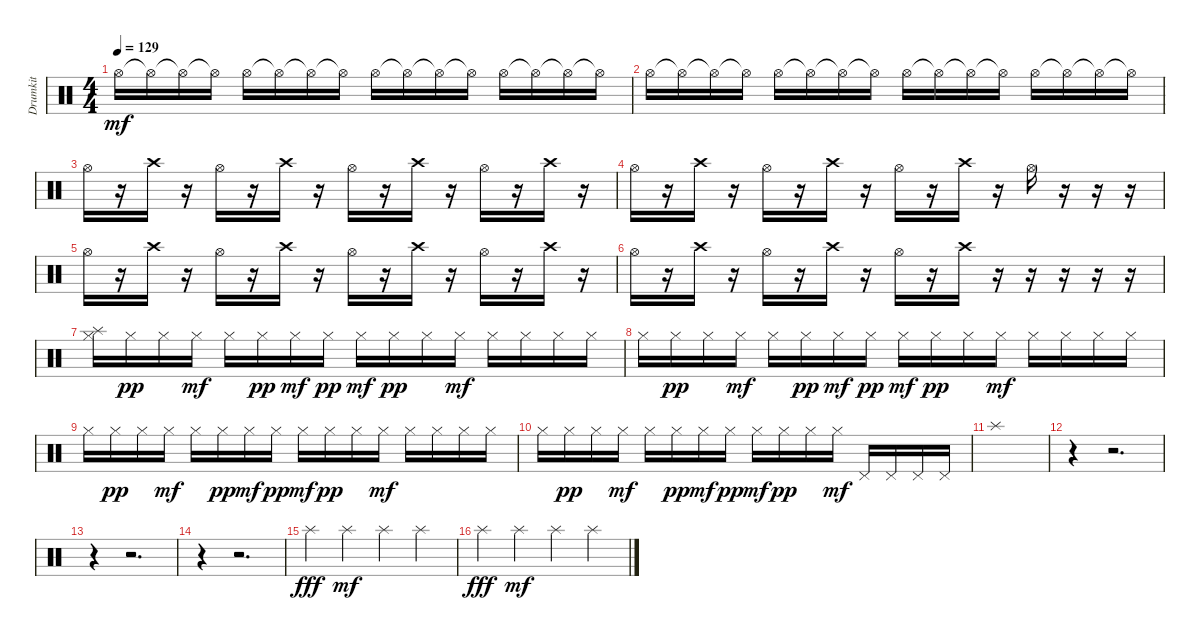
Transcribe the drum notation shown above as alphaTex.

\track ("Drumkit" "Drumkit") {instrument percussion}
\staff {score}
\articulation defaults
\ts (4 4)
\tempo 129
\clef neutral
\ks c "Hi-Hat (open)".16{dy mf} "Hi-Hat (open)"{t}.16 "Hi-Hat (open)"{t}.16 "Hi-Hat (open)"{t}.16 "Hi-Hat (open)".16 "Hi-Hat (open)"{t}.16 "Hi-Hat (open)"{t}.16 "Hi-Hat (open)"{t}.16 "Hi-Hat (open)".16 "Hi-Hat (open)"{t}.16 "Hi-Hat (open)"{t}.16 "Hi-Hat (open)"{t}.16 "Hi-Hat (open)".16 "Hi-Hat (open)"{t}.16 "Hi-Hat (open)"{t}.16 "Hi-Hat (open)"{t}.16
|
"Hi-Hat (open)".16 "Hi-Hat (open)"{t}.16 "Hi-Hat (open)"{t}.16 "Hi-Hat (open)"{t}.16 "Hi-Hat (open)".16 "Hi-Hat (open)"{t}.16 "Hi-Hat (open)"{t}.16 "Hi-Hat (open)"{t}.16 "Hi-Hat (open)".16 "Hi-Hat (open)"{t}.16 "Hi-Hat (open)"{t}.16 "Hi-Hat (open)"{t}.16 "Hi-Hat (open)".16 "Hi-Hat (open)"{t}.16 "Hi-Hat (open)"{t}.16 "Hi-Hat (open)"{t}.16 |
"Hi-Hat (open)".16 r.16 "Crash high (hit)".16 r.16 "Hi-Hat (open)".16 r.16 "Crash high (hit)".16 r.16 "Hi-Hat (open)".16 r.16 "Crash high (hit)".16 r.16 "Hi-Hat (open)".16 r.16 "Crash high (hit)".16 r.16 |
"Hi-Hat (open)".16 r.16 "Crash high (hit)".16 r.16 "Hi-Hat (open)".16 r.16 "Crash high (hit)".16 r.16 "Hi-Hat (open)".16 r.16 "Crash high (hit)".16 r.16 "Hi-Hat (open)".16 r.16 r.16 r.16 |
"Hi-Hat (open)".16 r.16 "Crash high (hit)".16 r.16 "Hi-Hat (open)".16 r.16 "Crash high (hit)".16 r.16 "Hi-Hat (open)".16 r.16 "Crash high (hit)".16 r.16 "Hi-Hat (open)".16 r.16 "Crash high (hit)".16 r.16 |
"Hi-Hat (open)".16 r.16 "Crash high (hit)".16 r.16 "Hi-Hat (open)".16 r.16 "Crash high (hit)".16 r.16 "Hi-Hat (open)".16 r.16 "Crash high (hit)".16 r.16 r.16 r.16 r.16 r.16 |
("Hi-Hat (closed)" "Splash (hit)").16 "Hi-Hat (closed)".16{dy pp} "Hi-Hat (closed)".16 "Hi-Hat (closed)".16{dy mf} "Hi-Hat (closed)".16 "Hi-Hat (closed)".16{dy pp} "Hi-Hat (closed)".16{dy mf} "Hi-Hat (closed)".16{dy pp} "Hi-Hat (closed)".16{dy mf} "Hi-Hat (closed)".16{dy pp} "Hi-Hat (closed)".16 "Hi-Hat (closed)".16{dy mf} "Hi-Hat (closed)".16 "Hi-Hat (closed)".16 "Hi-Hat (closed)".16 "Hi-Hat (closed)".16 |
"Hi-Hat (closed)".16 "Hi-Hat (closed)".16{dy pp} "Hi-Hat (closed)".16 "Hi-Hat (closed)".16{dy mf} "Hi-Hat (closed)".16 "Hi-Hat (closed)".16{dy pp} "Hi-Hat (closed)".16{dy mf} "Hi-Hat (closed)".16{dy pp} "Hi-Hat (closed)".16{dy mf} "Hi-Hat (closed)".16{dy pp} "Hi-Hat (closed)".16 "Hi-Hat (closed)".16{dy mf} "Hi-Hat (closed)".16 "Hi-Hat (closed)".16 "Hi-Hat (closed)".16 "Hi-Hat (closed)".16 |
"Hi-Hat (closed)".16 "Hi-Hat (closed)".16{dy pp} "Hi-Hat (closed)".16 "Hi-Hat (closed)".16{dy mf} "Hi-Hat (closed)".16 "Hi-Hat (closed)".16{dy pp} "Hi-Hat (closed)".16{dy mf} "Hi-Hat (closed)".16{dy pp} "Hi-Hat (closed)".16{dy mf} "Hi-Hat (closed)".16{dy pp} "Hi-Hat (closed)".16 "Hi-Hat (closed)".16{dy mf} "Hi-Hat (closed)".16 "Hi-Hat (closed)".16 "Hi-Hat (closed)".16 "Hi-Hat (closed)".16 |
"Hi-Hat (closed)".16 "Hi-Hat (closed)".16{dy pp} "Hi-Hat (closed)".16 "Hi-Hat (closed)".16{dy mf} "Hi-Hat (closed)".16 "Hi-Hat (closed)".16{dy pp} "Hi-Hat (closed)".16{dy mf} "Hi-Hat (closed)".16{dy pp} "Hi-Hat (closed)".16{dy mf} "Hi-Hat (closed)".16{dy pp} "Hi-Hat (closed)".16 "Hi-Hat (closed)".16{dy mf} "Pedal Hi-Hat (hit)".16 "Pedal Hi-Hat (hit)".16 "Pedal Hi-Hat (hit)".16 "Pedal Hi-Hat (hit)".16 |
"Splash (hit)".1 |
r.4 r.2{d} |
r.4 r.2{d} |
r.4 r.2{d} |
"Splash (hit)".4{dy fff} "Splash (hit)".4{dy mf} "Splash (hit)".4 "Splash (hit)".4 |
"Splash (hit)".4{dy fff} "Splash (hit)".4{dy mf} "Splash (hit)".4 "Splash (hit)".4
